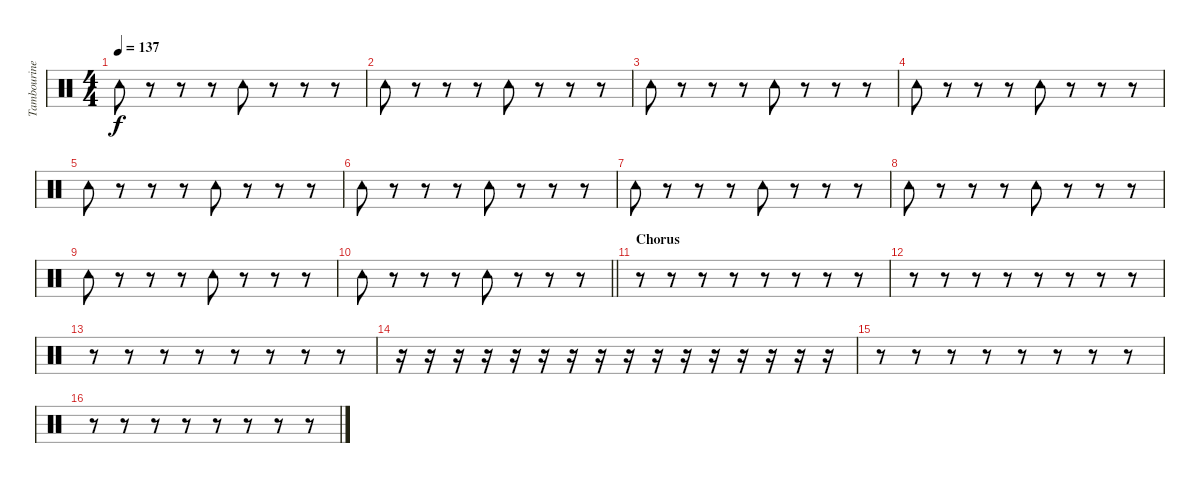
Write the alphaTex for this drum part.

\track ("Tambourine" "Tambourine") {instrument percussion}
\staff {score}
\articulation defaults
\ts (4 4)
\tempo 137
\clef neutral
\ks c "Tambourine (hit)".8{dy f}
r.8 r.8 r.8 "Tambourine (hit)".8 r.8 r.8 r.8 |
"Tambourine (hit)".8 r.8 r.8 r.8 "Tambourine (hit)".8 r.8 r.8 r.8 |
"Tambourine (hit)".8 r.8 r.8 r.8 "Tambourine (hit)".8 r.8 r.8 r.8 |
"Tambourine (hit)".8 r.8 r.8 r.8 "Tambourine (hit)".8 r.8 r.8 r.8 |
"Tambourine (hit)".8 r.8 r.8 r.8 "Tambourine (hit)".8 r.8 r.8 r.8 |
"Tambourine (hit)".8 r.8 r.8 r.8 "Tambourine (hit)".8 r.8 r.8 r.8 |
"Tambourine (hit)".8 r.8 r.8 r.8 "Tambourine (hit)".8 r.8 r.8 r.8 |
"Tambourine (hit)".8 r.8 r.8 r.8 "Tambourine (hit)".8 r.8 r.8 r.8 |
"Tambourine (hit)".8 r.8 r.8 r.8 "Tambourine (hit)".8 r.8 r.8 r.8 |
\barLineRight lightlight "Tambourine (hit)".8
r.8 r.8 r.8 "Tambourine (hit)".8 r.8 r.8 r.8 |
\section ("" "Chorus")
r.8 r.8 r.8 r.8 r.8 r.8 r.8 r.8 |
r.8 r.8 r.8 r.8 r.8 r.8 r.8 r.8 |
r.8 r.8 r.8 r.8 r.8 r.8 r.8 r.8 |
r.16 r.16 r.16 r.16 r.16 r.16 r.16 r.16 r.16 r.16 r.16 r.16 r.16 r.16 r.16 r.16 |
r.8 r.8 r.8 r.8 r.8 r.8 r.8 r.8 |
r.8 r.8 r.8 r.8 r.8 r.8 r.8 r.8
